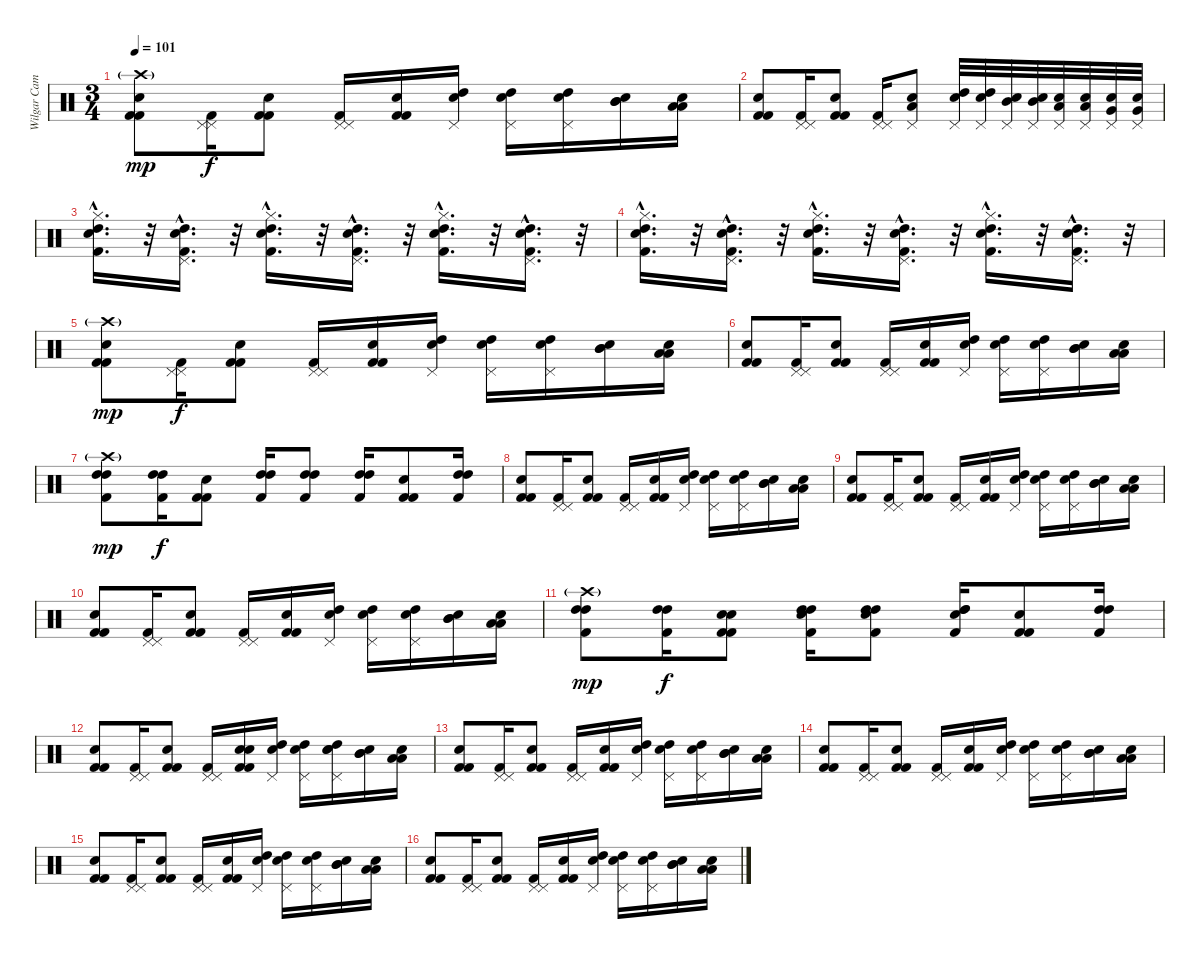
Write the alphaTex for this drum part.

\track ("Wilgar Campbell" "Wilgar Cam") {instrument percussion}
\staff {score}
\articulation defaults
\ts (3 4)
\tempo 101
\clef neutral
\ks c
("Crash high (hit)"{g} "Electric Snare (hit)" "Kick (hit) 2" "Kick (hit) 2").8{dy mp} ("Pedal Hi-Hat (hit)" "Pedal Hi-Hat (hit)" "Kick (hit) 2").16{dy f} ("Snare (hit) 2" "Kick (hit) 2" "Kick (hit) 2").8 ("Pedal Hi-Hat (hit)" "Pedal Hi-Hat (hit)" "Kick (hit) 2").16 ("Snare (hit) 2" "Kick (hit) 2" "Kick (hit) 2").16 ("Electric Snare (hit)" "Pedal Hi-Hat (hit)" "High Tom (hit)").16 ("Electric Snare (hit)" "Pedal Hi-Hat (hit)" "High Tom (hit)").16 ("Electric Snare (hit)" "Pedal Hi-Hat (hit)" "High Tom (hit)").16 ("Electric Snare (hit)" "Mid Tom (hit)" "Mid Tom (hit)").16 ("Electric Snare (hit)" "Low Tom (hit)" "Low Tom (hit)").16 |
("Electric Snare (hit)" "Kick (hit) 2" "Kick (hit) 2").8 ("Pedal Hi-Hat (hit)" "Pedal Hi-Hat (hit)" "Kick (hit) 2").16 ("Snare (hit) 2" "Kick (hit) 2" "Kick (hit) 2").8 ("Pedal Hi-Hat (hit)" "Pedal Hi-Hat (hit)" "Kick (hit) 2").16 ("Snare (hit) 2" "Pedal Hi-Hat (hit)" "Low Tom (hit)").8 ("Snare (hit) 2" "Pedal Hi-Hat (hit)" "High Tom (hit)").32 ("Snare (hit) 2" "Pedal Hi-Hat (hit)" "High Tom (hit)").32 ("Snare (hit) 2" "Pedal Hi-Hat (hit)" "Mid Tom (hit)").32 ("Snare (hit) 2" "Pedal Hi-Hat (hit)" "Mid Tom (hit)").32 ("Snare (hit) 2" "Pedal Hi-Hat (hit)" "Low Tom (hit)").32 ("Snare (hit) 2" "Pedal Hi-Hat (hit)" "Low Tom (hit)").32 ("Snare (hit) 2" "Pedal Hi-Hat (hit)" "Very Low Tom (hit)").32 ("Snare (hit) 2" "Pedal Hi-Hat (hit)" "Very Low Tom (hit)").32 |
("Hi-Hat (closed)"{hac} "Snare (hit) 2"{hac} "High Tom (hit)"{hac} "Kick (hit) 2"{hac}).16{d} r.32 ("Pedal Hi-Hat (hit)"{hac} "Snare (hit) 2"{hac} "High Tom (hit)"{hac} "Kick (hit) 2"{hac}).16{d} r.32 ("Hi-Hat (closed)"{hac} "Snare (hit) 2"{hac} "High Tom (hit)"{hac} "Kick (hit) 2"{hac}).16{d} r.32 ("Pedal Hi-Hat (hit)"{hac} "Snare (hit) 2"{hac} "High Tom (hit)"{hac} "Kick (hit) 2"{hac}).16{d} r.32 ("Hi-Hat (closed)"{hac} "Snare (hit) 2"{hac} "High Tom (hit)"{hac} "Kick (hit) 2"{hac}).16{d} r.32 ("Pedal Hi-Hat (hit)"{hac} "Snare (hit) 2"{hac} "High Tom (hit)"{hac} "Kick (hit) 2"{hac}).16{d} r.32 |
("Hi-Hat (closed)"{hac} "Snare (hit) 2"{hac} "High Tom (hit)"{hac} "Kick (hit) 2"{hac}).16{d} r.32 ("Pedal Hi-Hat (hit)"{hac} "Snare (hit) 2"{hac} "High Tom (hit)"{hac} "Kick (hit) 2"{hac}).16{d} r.32 ("Hi-Hat (closed)"{hac} "Snare (hit) 2"{hac} "High Tom (hit)"{hac} "Kick (hit) 2"{hac}).16{d} r.32 ("Pedal Hi-Hat (hit)"{hac} "Snare (hit) 2"{hac} "High Tom (hit)"{hac} "Kick (hit) 2"{hac}).16{d} r.32 ("Hi-Hat (closed)"{hac} "Snare (hit) 2"{hac} "High Tom (hit)"{hac} "Kick (hit) 2"{hac}).16{d} r.32 ("Pedal Hi-Hat (hit)"{hac} "Snare (hit) 2"{hac} "High Tom (hit)"{hac} "Kick (hit) 2"{hac}).16{d} r.32 |
("Crash high (hit)"{g} "Electric Snare (hit)" "Kick (hit) 2" "Kick (hit) 2").8{dy mp} ("Pedal Hi-Hat (hit)" "Pedal Hi-Hat (hit)" "Kick (hit) 2").16{dy f} ("Snare (hit) 2" "Kick (hit) 2" "Kick (hit) 2").8 ("Pedal Hi-Hat (hit)" "Pedal Hi-Hat (hit)" "Kick (hit) 2").16 ("Snare (hit) 2" "Kick (hit) 2" "Kick (hit) 2").16 ("Electric Snare (hit)" "Pedal Hi-Hat (hit)" "High Tom (hit)").16 ("Electric Snare (hit)" "Pedal Hi-Hat (hit)" "High Tom (hit)").16 ("Electric Snare (hit)" "Pedal Hi-Hat (hit)" "High Tom (hit)").16 ("Electric Snare (hit)" "Mid Tom (hit)" "Mid Tom (hit)").16 ("Electric Snare (hit)" "Low Tom (hit)" "Low Tom (hit)").16 |
("Electric Snare (hit)" "Kick (hit) 2" "Kick (hit) 2").8 ("Pedal Hi-Hat (hit)" "Pedal Hi-Hat (hit)" "Kick (hit) 2").16 ("Snare (hit) 2" "Kick (hit) 2" "Kick (hit) 2").8 ("Pedal Hi-Hat (hit)" "Pedal Hi-Hat (hit)" "Kick (hit) 2").16 ("Snare (hit) 2" "Kick (hit) 2" "Kick (hit) 2").16 ("Electric Snare (hit)" "Pedal Hi-Hat (hit)" "High Tom (hit)").16 ("Electric Snare (hit)" "Pedal Hi-Hat (hit)" "High Tom (hit)").16 ("Electric Snare (hit)" "Pedal Hi-Hat (hit)" "High Tom (hit)").16 ("Electric Snare (hit)" "Mid Tom (hit)" "Mid Tom (hit)").16 ("Electric Snare (hit)" "Low Tom (hit)" "Low Tom (hit)").16 |
("Crash high (hit)"{g} "High Tom (hit)" "High Tom (hit)" "Kick (hit) 2").8{dy mp} ("High Tom (hit)" "High Tom (hit)" "Kick (hit) 2").16{dy f} ("Snare (hit) 2" "Kick (hit) 2" "Kick (hit) 2").8 ("High Tom (hit)" "High Tom (hit)" "Kick (hit) 2").16 ("High Tom (hit)" "High Tom (hit)" "Kick (hit) 2").8 ("High Tom (hit)" "High Tom (hit)" "Kick (hit) 2").16 ("Snare (hit) 2" "Kick (hit) 2" "Kick (hit) 2").8 ("High Tom (hit)" "High Tom (hit)" "Kick (hit) 2").16 |
("Electric Snare (hit)" "Kick (hit) 2" "Kick (hit) 2").8 ("Pedal Hi-Hat (hit)" "Pedal Hi-Hat (hit)" "Kick (hit) 2").16 ("Snare (hit) 2" "Kick (hit) 2" "Kick (hit) 2").8 ("Pedal Hi-Hat (hit)" "Pedal Hi-Hat (hit)" "Kick (hit) 2").16 ("Snare (hit) 2" "Kick (hit) 2" "Kick (hit) 2").16 ("Electric Snare (hit)" "Pedal Hi-Hat (hit)" "High Tom (hit)").16 ("Electric Snare (hit)" "Pedal Hi-Hat (hit)" "High Tom (hit)").16 ("Electric Snare (hit)" "Pedal Hi-Hat (hit)" "High Tom (hit)").16 ("Electric Snare (hit)" "Mid Tom (hit)" "Mid Tom (hit)").16 ("Electric Snare (hit)" "Low Tom (hit)" "Low Tom (hit)").16 |
("Electric Snare (hit)" "Kick (hit) 2" "Kick (hit) 2").8 ("Pedal Hi-Hat (hit)" "Pedal Hi-Hat (hit)" "Kick (hit) 2").16 ("Snare (hit) 2" "Kick (hit) 2" "Kick (hit) 2").8 ("Pedal Hi-Hat (hit)" "Pedal Hi-Hat (hit)" "Kick (hit) 2").16 ("Snare (hit) 2" "Kick (hit) 2" "Kick (hit) 2").16 ("Electric Snare (hit)" "Pedal Hi-Hat (hit)" "High Tom (hit)").16 ("Electric Snare (hit)" "Pedal Hi-Hat (hit)" "High Tom (hit)").16 ("Electric Snare (hit)" "Pedal Hi-Hat (hit)" "High Tom (hit)").16 ("Electric Snare (hit)" "Mid Tom (hit)" "Mid Tom (hit)").16 ("Electric Snare (hit)" "Low Tom (hit)" "Low Tom (hit)").16 |
("Electric Snare (hit)" "Kick (hit) 2" "Kick (hit) 2").8 ("Pedal Hi-Hat (hit)" "Pedal Hi-Hat (hit)" "Kick (hit) 2").16 ("Snare (hit) 2" "Kick (hit) 2" "Kick (hit) 2").8 ("Pedal Hi-Hat (hit)" "Pedal Hi-Hat (hit)" "Kick (hit) 2").16 ("Snare (hit) 2" "Kick (hit) 2" "Kick (hit) 2").16 ("Electric Snare (hit)" "Pedal Hi-Hat (hit)" "High Tom (hit)").16 ("Electric Snare (hit)" "Pedal Hi-Hat (hit)" "High Tom (hit)").16 ("Electric Snare (hit)" "Pedal Hi-Hat (hit)" "High Tom (hit)").16 ("Electric Snare (hit)" "Mid Tom (hit)" "Mid Tom (hit)").16 ("Electric Snare (hit)" "Low Tom (hit)" "Low Tom (hit)").16 |
("Crash high (hit)"{g} "High Tom (hit)" "High Tom (hit)" "Kick (hit) 2").8{dy mp} ("High Tom (hit)" "High Tom (hit)" "Kick (hit) 2").16{dy f} ("Electric Snare (hit)" "Snare (hit) 2" "Kick (hit) 2" "Kick (hit) 2").8 ("Electric Snare (hit)" "High Tom (hit)" "High Tom (hit)" "Kick (hit) 2").16 ("Electric Snare (hit)" "High Tom (hit)" "High Tom (hit)" "Kick (hit) 2").8 ("Electric Snare (hit)" "High Tom (hit)" "High Tom (hit)" "Kick (hit) 2").16 ("Snare (hit) 2" "Kick (hit) 2" "Kick (hit) 2").8 ("High Tom (hit)" "High Tom (hit)" "Kick (hit) 2").16 |
("Electric Snare (hit)" "Kick (hit) 2" "Kick (hit) 2").8 ("Pedal Hi-Hat (hit)" "Pedal Hi-Hat (hit)" "Kick (hit) 2").16 ("Snare (hit) 2" "Kick (hit) 2" "Kick (hit) 2").8 ("Pedal Hi-Hat (hit)" "Pedal Hi-Hat (hit)" "Kick (hit) 2").16 ("Snare (hit) 2" "Snare (hit) 2" "Kick (hit) 2" "Kick (hit) 2").16 ("Electric Snare (hit)" "Pedal Hi-Hat (hit)" "High Tom (hit)").16 ("Electric Snare (hit)" "Pedal Hi-Hat (hit)" "High Tom (hit)").16 ("Snare (hit) 2" "Electric Snare (hit)" "Pedal Hi-Hat (hit)" "High Tom (hit)").16 ("Electric Snare (hit)" "Mid Tom (hit)" "Mid Tom (hit)").16 ("Electric Snare (hit)" "Low Tom (hit)" "Low Tom (hit)").16 |
("Electric Snare (hit)" "Kick (hit) 2" "Kick (hit) 2").8 ("Pedal Hi-Hat (hit)" "Pedal Hi-Hat (hit)" "Kick (hit) 2").16 ("Snare (hit) 2" "Kick (hit) 2" "Kick (hit) 2").8 ("Pedal Hi-Hat (hit)" "Pedal Hi-Hat (hit)" "Kick (hit) 2").16 ("Snare (hit) 2" "Kick (hit) 2" "Kick (hit) 2").16 ("Electric Snare (hit)" "Pedal Hi-Hat (hit)" "High Tom (hit)").16 ("Electric Snare (hit)" "Pedal Hi-Hat (hit)" "High Tom (hit)").16 ("Electric Snare (hit)" "Pedal Hi-Hat (hit)" "High Tom (hit)").16 ("Electric Snare (hit)" "Mid Tom (hit)" "Mid Tom (hit)").16 ("Electric Snare (hit)" "Low Tom (hit)" "Low Tom (hit)").16 |
("Electric Snare (hit)" "Kick (hit) 2" "Kick (hit) 2").8 ("Pedal Hi-Hat (hit)" "Pedal Hi-Hat (hit)" "Kick (hit) 2").16 ("Snare (hit) 2" "Kick (hit) 2" "Kick (hit) 2").8 ("Pedal Hi-Hat (hit)" "Pedal Hi-Hat (hit)" "Kick (hit) 2").16 ("Snare (hit) 2" "Kick (hit) 2" "Kick (hit) 2").16 ("Electric Snare (hit)" "Pedal Hi-Hat (hit)" "High Tom (hit)").16 ("Electric Snare (hit)" "Pedal Hi-Hat (hit)" "High Tom (hit)").16 ("Electric Snare (hit)" "Pedal Hi-Hat (hit)" "High Tom (hit)").16 ("Electric Snare (hit)" "Mid Tom (hit)" "Mid Tom (hit)").16 ("Electric Snare (hit)" "Low Tom (hit)" "Low Tom (hit)").16 |
("Electric Snare (hit)" "Kick (hit) 2" "Kick (hit) 2").8 ("Pedal Hi-Hat (hit)" "Pedal Hi-Hat (hit)" "Kick (hit) 2").16 ("Snare (hit) 2" "Kick (hit) 2" "Kick (hit) 2").8 ("Pedal Hi-Hat (hit)" "Pedal Hi-Hat (hit)" "Kick (hit) 2").16 ("Snare (hit) 2" "Kick (hit) 2" "Kick (hit) 2").16 ("Electric Snare (hit)" "Pedal Hi-Hat (hit)" "High Tom (hit)").16 ("Electric Snare (hit)" "Pedal Hi-Hat (hit)" "High Tom (hit)").16 ("Electric Snare (hit)" "Pedal Hi-Hat (hit)" "High Tom (hit)").16 ("Electric Snare (hit)" "Mid Tom (hit)" "Mid Tom (hit)").16 ("Electric Snare (hit)" "Low Tom (hit)" "Low Tom (hit)").16 |
("Electric Snare (hit)" "Kick (hit) 2" "Kick (hit) 2").8 ("Pedal Hi-Hat (hit)" "Pedal Hi-Hat (hit)" "Kick (hit) 2").16 ("Snare (hit) 2" "Kick (hit) 2" "Kick (hit) 2").8 ("Pedal Hi-Hat (hit)" "Pedal Hi-Hat (hit)" "Kick (hit) 2").16 ("Snare (hit) 2" "Kick (hit) 2" "Kick (hit) 2").16 ("Electric Snare (hit)" "Pedal Hi-Hat (hit)" "High Tom (hit)").16 ("Electric Snare (hit)" "Pedal Hi-Hat (hit)" "High Tom (hit)").16 ("Electric Snare (hit)" "Pedal Hi-Hat (hit)" "High Tom (hit)").16 ("Electric Snare (hit)" "Mid Tom (hit)" "Mid Tom (hit)").16 ("Electric Snare (hit)" "Low Tom (hit)" "Low Tom (hit)").16
